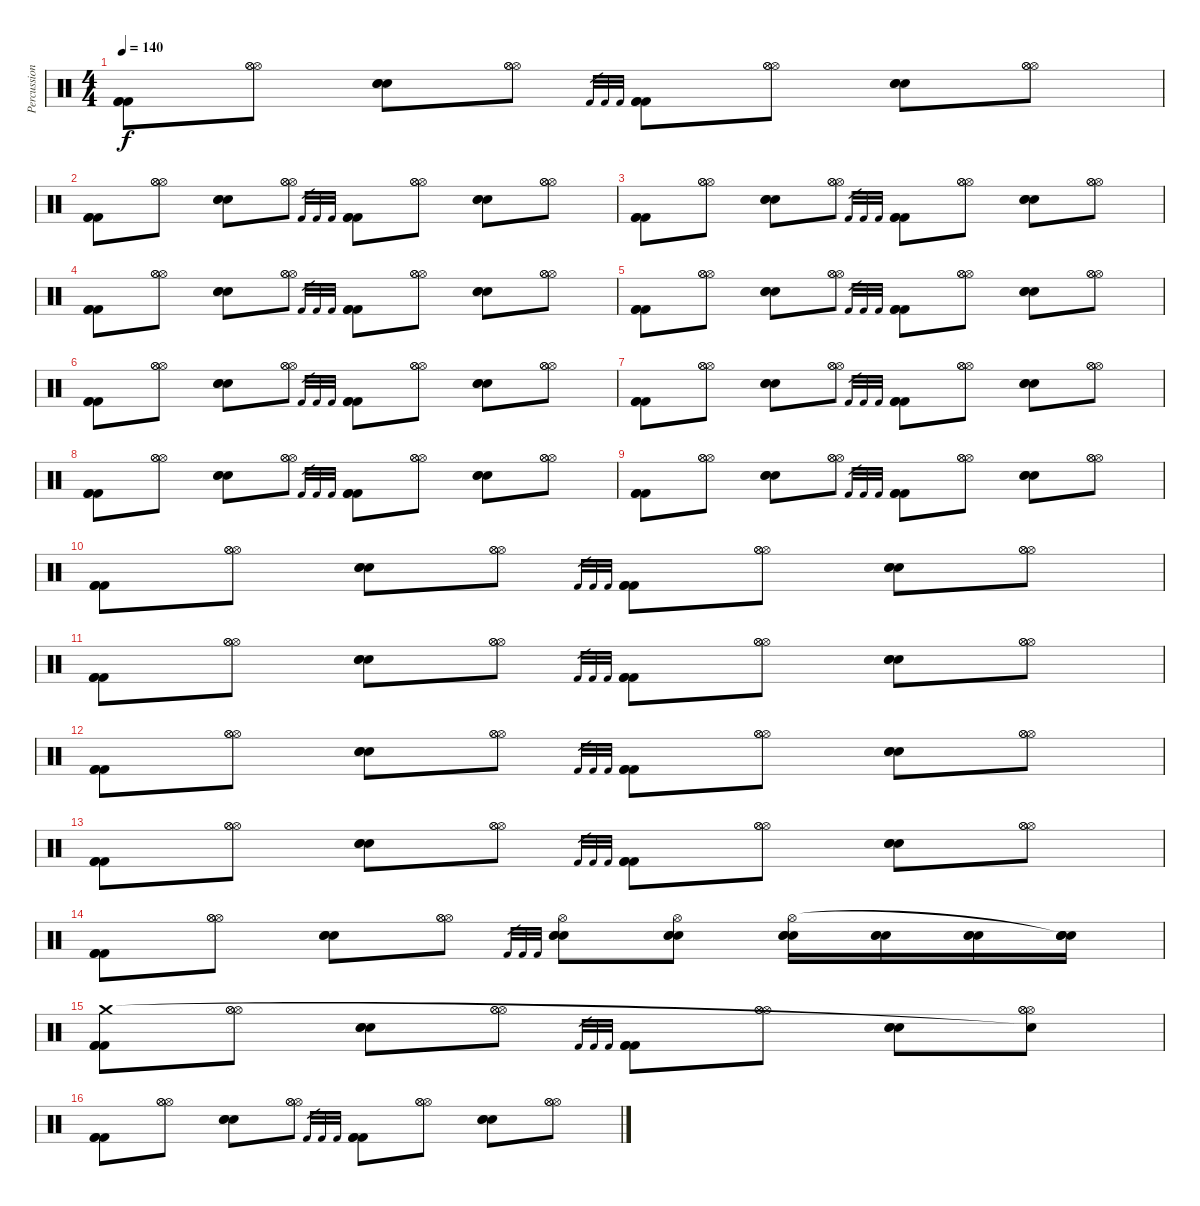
\track ("Percussion" "Percussion") {instrument percussion}
\staff {score}
\articulation defaults
\ts (4 4)
\tempo 140
\clef neutral
\ks c
("Kick (hit) 2" "Kick (hit) 2" "Kick (hit) 2").8{dy f} ("Hi-Hat (open)" "Hi-Hat (open)" "Hi-Hat (open)").8 ("Electric Snare (hit)" "Electric Snare (hit)" "Electric Snare (hit)").8 ("Hi-Hat (open)" "Hi-Hat (open)" "Hi-Hat (open)").8 "Kick (hit) 2".32{gr} "Kick (hit) 2".32{gr} "Kick (hit) 2".32{gr} ("Kick (hit) 2" "Kick (hit) 2" "Kick (hit) 2").8 ("Hi-Hat (open)" "Hi-Hat (open)" "Hi-Hat (open)").8 ("Electric Snare (hit)" "Electric Snare (hit)" "Electric Snare (hit)").8 ("Hi-Hat (open)" "Hi-Hat (open)" "Hi-Hat (open)").8 |
("Kick (hit) 2" "Kick (hit) 2" "Kick (hit) 2").8 ("Hi-Hat (open)" "Hi-Hat (open)" "Hi-Hat (open)").8 ("Electric Snare (hit)" "Electric Snare (hit)" "Electric Snare (hit)").8 ("Hi-Hat (open)" "Hi-Hat (open)" "Hi-Hat (open)").8 "Kick (hit) 2".32{gr} "Kick (hit) 2".32{gr} "Kick (hit) 2".32{gr} ("Kick (hit) 2" "Kick (hit) 2" "Kick (hit) 2").8 ("Hi-Hat (open)" "Hi-Hat (open)" "Hi-Hat (open)").8 ("Electric Snare (hit)" "Electric Snare (hit)" "Electric Snare (hit)").8 ("Hi-Hat (open)" "Hi-Hat (open)" "Hi-Hat (open)").8 |
("Kick (hit) 2" "Kick (hit) 2" "Kick (hit) 2").8 ("Hi-Hat (open)" "Hi-Hat (open)" "Hi-Hat (open)").8 ("Electric Snare (hit)" "Electric Snare (hit)" "Electric Snare (hit)").8 ("Hi-Hat (open)" "Hi-Hat (open)" "Hi-Hat (open)").8 "Kick (hit) 2".32{gr} "Kick (hit) 2".32{gr} "Kick (hit) 2".32{gr} ("Kick (hit) 2" "Kick (hit) 2" "Kick (hit) 2").8 ("Hi-Hat (open)" "Hi-Hat (open)" "Hi-Hat (open)").8 ("Electric Snare (hit)" "Electric Snare (hit)" "Electric Snare (hit)").8 ("Hi-Hat (open)" "Hi-Hat (open)" "Hi-Hat (open)").8 |
("Kick (hit) 2" "Kick (hit) 2" "Kick (hit) 2").8 ("Hi-Hat (open)" "Hi-Hat (open)" "Hi-Hat (open)").8 ("Electric Snare (hit)" "Electric Snare (hit)" "Electric Snare (hit)").8 ("Hi-Hat (open)" "Hi-Hat (open)" "Hi-Hat (open)").8 "Kick (hit) 2".32{gr} "Kick (hit) 2".32{gr} "Kick (hit) 2".32{gr} ("Kick (hit) 2" "Kick (hit) 2" "Kick (hit) 2").8 ("Hi-Hat (open)" "Hi-Hat (open)" "Hi-Hat (open)").8 ("Electric Snare (hit)" "Electric Snare (hit)" "Electric Snare (hit)").8 ("Hi-Hat (open)" "Hi-Hat (open)" "Hi-Hat (open)").8 |
("Kick (hit) 2" "Kick (hit) 2" "Kick (hit) 2").8 ("Hi-Hat (open)" "Hi-Hat (open)" "Hi-Hat (open)").8 ("Electric Snare (hit)" "Electric Snare (hit)" "Electric Snare (hit)").8 ("Hi-Hat (open)" "Hi-Hat (open)" "Hi-Hat (open)").8 "Kick (hit) 2".32{gr} "Kick (hit) 2".32{gr} "Kick (hit) 2".32{gr} ("Kick (hit) 2" "Kick (hit) 2" "Kick (hit) 2").8 ("Hi-Hat (open)" "Hi-Hat (open)" "Hi-Hat (open)").8 ("Electric Snare (hit)" "Electric Snare (hit)" "Electric Snare (hit)").8 ("Hi-Hat (open)" "Hi-Hat (open)" "Hi-Hat (open)").8 |
("Kick (hit) 2" "Kick (hit) 2" "Kick (hit) 2").8 ("Hi-Hat (open)" "Hi-Hat (open)" "Hi-Hat (open)").8 ("Electric Snare (hit)" "Electric Snare (hit)" "Electric Snare (hit)").8 ("Hi-Hat (open)" "Hi-Hat (open)" "Hi-Hat (open)").8 "Kick (hit) 2".32{gr} "Kick (hit) 2".32{gr} "Kick (hit) 2".32{gr} ("Kick (hit) 2" "Kick (hit) 2" "Kick (hit) 2").8 ("Hi-Hat (open)" "Hi-Hat (open)" "Hi-Hat (open)").8 ("Electric Snare (hit)" "Electric Snare (hit)" "Electric Snare (hit)").8 ("Hi-Hat (open)" "Hi-Hat (open)" "Hi-Hat (open)").8 |
("Kick (hit) 2" "Kick (hit) 2" "Kick (hit) 2").8 ("Hi-Hat (open)" "Hi-Hat (open)" "Hi-Hat (open)").8 ("Electric Snare (hit)" "Electric Snare (hit)" "Electric Snare (hit)").8 ("Hi-Hat (open)" "Hi-Hat (open)" "Hi-Hat (open)").8 "Kick (hit) 2".32{gr} "Kick (hit) 2".32{gr} "Kick (hit) 2".32{gr} ("Kick (hit) 2" "Kick (hit) 2" "Kick (hit) 2").8 ("Hi-Hat (open)" "Hi-Hat (open)" "Hi-Hat (open)").8 ("Electric Snare (hit)" "Electric Snare (hit)" "Electric Snare (hit)").8 ("Hi-Hat (open)" "Hi-Hat (open)" "Hi-Hat (open)").8 |
("Kick (hit) 2" "Kick (hit) 2" "Kick (hit) 2").8 ("Hi-Hat (open)" "Hi-Hat (open)" "Hi-Hat (open)").8 ("Electric Snare (hit)" "Electric Snare (hit)" "Electric Snare (hit)").8 ("Hi-Hat (open)" "Hi-Hat (open)" "Hi-Hat (open)").8 "Kick (hit) 2".32{gr} "Kick (hit) 2".32{gr} "Kick (hit) 2".32{gr} ("Kick (hit) 2" "Kick (hit) 2" "Kick (hit) 2").8 ("Hi-Hat (open)" "Hi-Hat (open)" "Hi-Hat (open)").8 ("Electric Snare (hit)" "Electric Snare (hit)" "Electric Snare (hit)").8 ("Hi-Hat (open)" "Hi-Hat (open)" "Hi-Hat (open)").8 |
("Kick (hit) 2" "Kick (hit) 2" "Kick (hit) 2").8 ("Hi-Hat (open)" "Hi-Hat (open)" "Hi-Hat (open)").8 ("Electric Snare (hit)" "Electric Snare (hit)" "Electric Snare (hit)").8 ("Hi-Hat (open)" "Hi-Hat (open)" "Hi-Hat (open)").8 "Kick (hit) 2".32{gr} "Kick (hit) 2".32{gr} "Kick (hit) 2".32{gr} ("Kick (hit) 2" "Kick (hit) 2" "Kick (hit) 2").8 ("Hi-Hat (open)" "Hi-Hat (open)" "Hi-Hat (open)").8 ("Electric Snare (hit)" "Electric Snare (hit)" "Electric Snare (hit)").8 ("Hi-Hat (open)" "Hi-Hat (open)" "Hi-Hat (open)").8 |
("Kick (hit) 2" "Kick (hit) 2" "Kick (hit) 2").8 ("Hi-Hat (open)" "Hi-Hat (open)" "Hi-Hat (open)").8 ("Electric Snare (hit)" "Electric Snare (hit)" "Electric Snare (hit)").8 ("Hi-Hat (open)" "Hi-Hat (open)" "Hi-Hat (open)").8 "Kick (hit) 2".32{gr} "Kick (hit) 2".32{gr} "Kick (hit) 2".32{gr} ("Kick (hit) 2" "Kick (hit) 2" "Kick (hit) 2").8 ("Hi-Hat (open)" "Hi-Hat (open)" "Hi-Hat (open)").8 ("Electric Snare (hit)" "Electric Snare (hit)" "Electric Snare (hit)").8 ("Hi-Hat (open)" "Hi-Hat (open)" "Hi-Hat (open)").8 |
("Kick (hit) 2" "Kick (hit) 2" "Kick (hit) 2").8 ("Hi-Hat (open)" "Hi-Hat (open)" "Hi-Hat (open)").8 ("Electric Snare (hit)" "Electric Snare (hit)" "Electric Snare (hit)").8 ("Hi-Hat (open)" "Hi-Hat (open)" "Hi-Hat (open)").8 "Kick (hit) 2".32{gr} "Kick (hit) 2".32{gr} "Kick (hit) 2".32{gr} ("Kick (hit) 2" "Kick (hit) 2" "Kick (hit) 2").8 ("Hi-Hat (open)" "Hi-Hat (open)" "Hi-Hat (open)").8 ("Electric Snare (hit)" "Electric Snare (hit)" "Electric Snare (hit)").8 ("Hi-Hat (open)" "Hi-Hat (open)" "Hi-Hat (open)").8 |
("Kick (hit) 2" "Kick (hit) 2" "Kick (hit) 2").8 ("Hi-Hat (open)" "Hi-Hat (open)" "Hi-Hat (open)").8 ("Electric Snare (hit)" "Electric Snare (hit)" "Electric Snare (hit)").8 ("Hi-Hat (open)" "Hi-Hat (open)" "Hi-Hat (open)").8 "Kick (hit) 2".32{gr} "Kick (hit) 2".32{gr} "Kick (hit) 2".32{gr} ("Kick (hit) 2" "Kick (hit) 2" "Kick (hit) 2").8 ("Hi-Hat (open)" "Hi-Hat (open)" "Hi-Hat (open)").8 ("Electric Snare (hit)" "Electric Snare (hit)" "Electric Snare (hit)").8 ("Hi-Hat (open)" "Hi-Hat (open)" "Hi-Hat (open)").8 |
("Kick (hit) 2" "Kick (hit) 2" "Kick (hit) 2").8 ("Hi-Hat (open)" "Hi-Hat (open)" "Hi-Hat (open)").8 ("Electric Snare (hit)" "Electric Snare (hit)" "Electric Snare (hit)").8 ("Hi-Hat (open)" "Hi-Hat (open)" "Hi-Hat (open)").8 "Kick (hit) 2".32{gr} "Kick (hit) 2".32{gr} "Kick (hit) 2".32{gr} ("Kick (hit) 2" "Kick (hit) 2" "Kick (hit) 2").8 ("Hi-Hat (open)" "Hi-Hat (open)" "Hi-Hat (open)").8 ("Electric Snare (hit)" "Electric Snare (hit)" "Electric Snare (hit)").8 ("Hi-Hat (open)" "Hi-Hat (open)" "Hi-Hat (open)").8 |
("Kick (hit) 2" "Kick (hit) 2" "Kick (hit) 2").8 ("Hi-Hat (open)" "Hi-Hat (open)" "Hi-Hat (open)").8 ("Electric Snare (hit)" "Electric Snare (hit)" "Electric Snare (hit)").8 ("Hi-Hat (open)" "Hi-Hat (open)" "Hi-Hat (open)").8 "Kick (hit) 2".32{gr} "Kick (hit) 2".32{gr} "Kick (hit) 2".32{gr} ("Electric Snare (hit)" "Electric Snare (hit)" "Electric Snare (hit)" "Hi-Hat (open)").8 ("Electric Snare (hit)" "Electric Snare (hit)" "Electric Snare (hit)" "Hi-Hat (open)").8 ("Electric Snare (hit)" "Electric Snare (hit)" "Electric Snare (hit)" "Hi-Hat (open)").16 ("Electric Snare (hit)" "Electric Snare (hit)" "Electric Snare (hit)").16 ("Electric Snare (hit)" "Electric Snare (hit)" "Electric Snare (hit)").16 ("Electric Snare (hit)" "Electric Snare (hit)" "Electric Snare (hit)" "Snare (hit)"{t}).16 |
("Kick (hit) 2" "Kick (hit) 2" "Kick (hit) 2" "Crash medium (hit)").8 ("Hi-Hat (open)" "Hi-Hat (open)" "Hi-Hat (open)").8 ("Electric Snare (hit)" "Electric Snare (hit)" "Electric Snare (hit)").8 ("Hi-Hat (open)" "Hi-Hat (open)" "Hi-Hat (open)").8 "Kick (hit) 2".32{gr} "Kick (hit) 2".32{gr} "Kick (hit) 2".32{gr} ("Kick (hit) 2" "Kick (hit) 2" "Kick (hit) 2").8 ("Hi-Hat (open)" "Hi-Hat (open)" "Hi-Hat (open)").8 ("Electric Snare (hit)" "Electric Snare (hit)" "Electric Snare (hit)").8 ("Hi-Hat (open)" "Hi-Hat (open)" "Hi-Hat (open)" "Snare (hit)"{t}).8 |
("Kick (hit) 2" "Kick (hit) 2" "Kick (hit) 2").8 ("Hi-Hat (open)" "Hi-Hat (open)" "Hi-Hat (open)").8 ("Electric Snare (hit)" "Electric Snare (hit)" "Electric Snare (hit)").8 ("Hi-Hat (open)" "Hi-Hat (open)" "Hi-Hat (open)").8 "Kick (hit) 2".32{gr} "Kick (hit) 2".32{gr} "Kick (hit) 2".32{gr} ("Kick (hit) 2" "Kick (hit) 2" "Kick (hit) 2").8 ("Hi-Hat (open)" "Hi-Hat (open)" "Hi-Hat (open)").8 ("Electric Snare (hit)" "Electric Snare (hit)" "Electric Snare (hit)").8 ("Hi-Hat (open)" "Hi-Hat (open)" "Hi-Hat (open)").8
